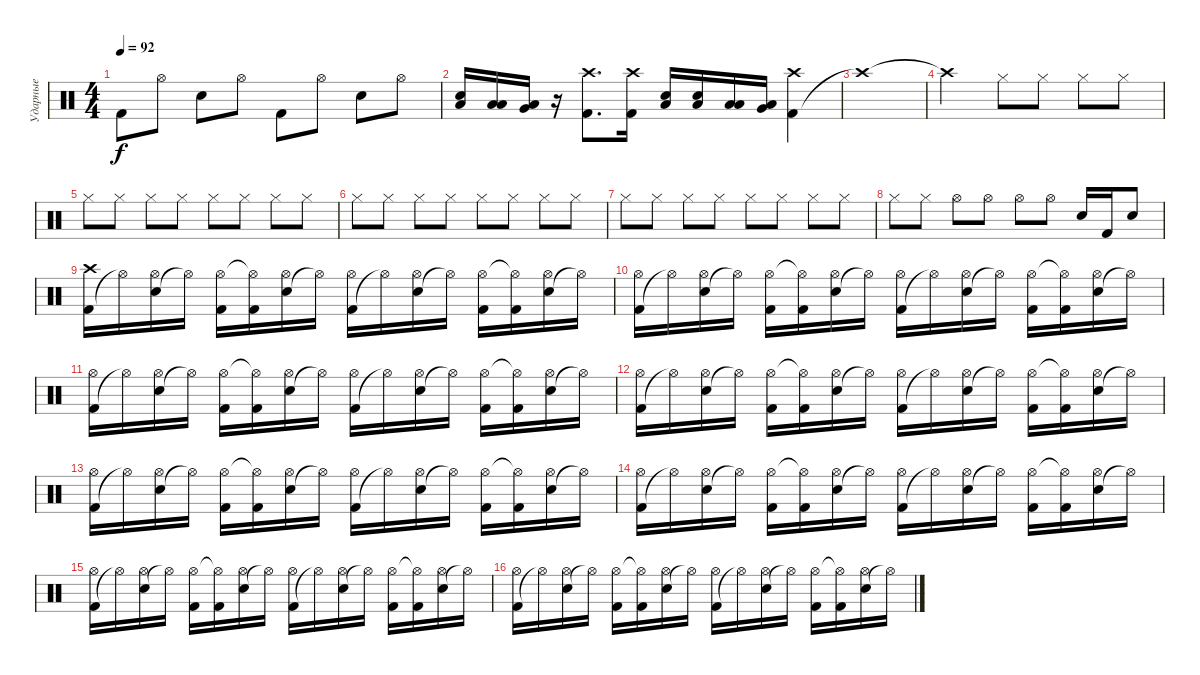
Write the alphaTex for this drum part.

\track ("Ударные" "Ударные") {instrument percussion}
\staff {score}
\articulation defaults
\ts (4 4)
\tempo 92
\clef neutral
\ks c "Kick (hit) 2".8{dy f} "Hi-Hat (open)".8 "Snare (hit) 2".8 "Hi-Hat (open)".8 "Kick (hit) 2".8 "Hi-Hat (open)".8 "Snare (hit) 2".8 "Hi-Hat (open)".8
|
("Snare (hit) 2" "Low Floor Tom (hit)").16 ("Low Tom (hit)" "Low Floor Tom (hit)").16 ("Very Low Tom (hit)" "Low Floor Tom (hit)").16 r.16 ("Kick (hit) 2" "Crash high (hit)").8{d} ("Kick (hit) 2" "Crash high (hit)").16 ("Snare (hit) 2" "Low Floor Tom (hit)").16 ("Snare (hit) 2" "Low Floor Tom (hit)").16 ("Low Tom (hit)" "Low Floor Tom (hit)").16 ("Very Low Tom (hit)" "Low Floor Tom (hit)").16 ("Kick (hit) 2" "Crash high (hit)").4 |
"Crash high (hit)"{t}.1 |
"Crash high (hit)"{t}.2 "Hi-Hat (closed)".8 "Hi-Hat (closed)".8 "Hi-Hat (closed)".8 "Hi-Hat (closed)".8 |
"Hi-Hat (closed)".8 "Hi-Hat (closed)".8 "Hi-Hat (closed)".8 "Hi-Hat (closed)".8 "Hi-Hat (closed)".8 "Hi-Hat (closed)".8 "Hi-Hat (closed)".8 "Hi-Hat (closed)".8 |
"Hi-Hat (closed)".8 "Hi-Hat (closed)".8 "Hi-Hat (closed)".8 "Hi-Hat (closed)".8 "Hi-Hat (closed)".8 "Hi-Hat (closed)".8 "Hi-Hat (closed)".8 "Hi-Hat (closed)".8 |
"Hi-Hat (closed)".8 "Hi-Hat (closed)".8 "Hi-Hat (closed)".8 "Hi-Hat (closed)".8 "Hi-Hat (closed)".8 "Hi-Hat (closed)".8 "Hi-Hat (closed)".8 "Hi-Hat (closed)".8 |
"Hi-Hat (closed)".8 "Hi-Hat (closed)".8 "Hi-Hat (open)".8 "Hi-Hat (open)".8 "Hi-Hat (open)".8 "Hi-Hat (open)".8 "Snare (hit) 2".16 "Kick (hit) 2".16 "Snare (hit) 2".8 |
("Kick (hit) 2" "Crash high (hit)").16 "Hi-Hat (open)"{t}.16 ("Snare (hit) 2" "Hi-Hat (open)").16 "Hi-Hat (open)"{t}.16 ("Kick (hit) 2" "Hi-Hat (open)").16 ("Kick (hit) 2" "Hi-Hat (open)"{t}).16 ("Snare (hit) 2" "Hi-Hat (open)").16 "Hi-Hat (open)"{t}.16 ("Kick (hit) 2" "Hi-Hat (open)").16 "Hi-Hat (open)"{t}.16 ("Snare (hit) 2" "Hi-Hat (open)").16 "Hi-Hat (open)"{t}.16 ("Kick (hit) 2" "Hi-Hat (open)").16 ("Kick (hit) 2" "Hi-Hat (open)"{t}).16 ("Snare (hit) 2" "Hi-Hat (open)").16 "Hi-Hat (open)"{t}.16 |
("Kick (hit) 2" "Hi-Hat (open)").16 "Hi-Hat (open)"{t}.16 ("Snare (hit) 2" "Hi-Hat (open)").16 "Hi-Hat (open)"{t}.16 ("Kick (hit) 2" "Hi-Hat (open)").16 ("Kick (hit) 2" "Hi-Hat (open)"{t}).16 ("Snare (hit) 2" "Hi-Hat (open)").16 "Hi-Hat (open)"{t}.16 ("Kick (hit) 2" "Hi-Hat (open)").16 "Hi-Hat (open)"{t}.16 ("Snare (hit) 2" "Hi-Hat (open)").16 "Hi-Hat (open)"{t}.16 ("Kick (hit) 2" "Hi-Hat (open)").16 ("Kick (hit) 2" "Hi-Hat (open)"{t}).16 ("Snare (hit) 2" "Hi-Hat (open)").16 "Hi-Hat (open)"{t}.16 |
("Kick (hit) 2" "Hi-Hat (open)").16 "Hi-Hat (open)"{t}.16 ("Snare (hit) 2" "Hi-Hat (open)").16 "Hi-Hat (open)"{t}.16 ("Kick (hit) 2" "Hi-Hat (open)").16 ("Kick (hit) 2" "Hi-Hat (open)"{t}).16 ("Snare (hit) 2" "Hi-Hat (open)").16 "Hi-Hat (open)"{t}.16 ("Kick (hit) 2" "Hi-Hat (open)").16 "Hi-Hat (open)"{t}.16 ("Snare (hit) 2" "Hi-Hat (open)").16 "Hi-Hat (open)"{t}.16 ("Kick (hit) 2" "Hi-Hat (open)").16 ("Kick (hit) 2" "Hi-Hat (open)"{t}).16 ("Snare (hit) 2" "Hi-Hat (open)").16 "Hi-Hat (open)"{t}.16 |
("Kick (hit) 2" "Hi-Hat (open)").16 "Hi-Hat (open)"{t}.16 ("Snare (hit) 2" "Hi-Hat (open)").16 "Hi-Hat (open)"{t}.16 ("Kick (hit) 2" "Hi-Hat (open)").16 ("Kick (hit) 2" "Hi-Hat (open)"{t}).16 ("Snare (hit) 2" "Hi-Hat (open)").16 "Hi-Hat (open)"{t}.16 ("Kick (hit) 2" "Hi-Hat (open)").16 "Hi-Hat (open)"{t}.16 ("Snare (hit) 2" "Hi-Hat (open)").16 "Hi-Hat (open)"{t}.16 ("Kick (hit) 2" "Hi-Hat (open)").16 ("Kick (hit) 2" "Hi-Hat (open)"{t}).16 ("Snare (hit) 2" "Hi-Hat (open)").16 "Hi-Hat (open)"{t}.16 |
("Kick (hit) 2" "Hi-Hat (open)").16 "Hi-Hat (open)"{t}.16 ("Snare (hit) 2" "Hi-Hat (open)").16 "Hi-Hat (open)"{t}.16 ("Kick (hit) 2" "Hi-Hat (open)").16 ("Kick (hit) 2" "Hi-Hat (open)"{t}).16 ("Snare (hit) 2" "Hi-Hat (open)").16 "Hi-Hat (open)"{t}.16 ("Kick (hit) 2" "Hi-Hat (open)").16 "Hi-Hat (open)"{t}.16 ("Snare (hit) 2" "Hi-Hat (open)").16 "Hi-Hat (open)"{t}.16 ("Kick (hit) 2" "Hi-Hat (open)").16 ("Kick (hit) 2" "Hi-Hat (open)"{t}).16 ("Snare (hit) 2" "Hi-Hat (open)").16 "Hi-Hat (open)"{t}.16 |
("Kick (hit) 2" "Hi-Hat (open)").16 "Hi-Hat (open)"{t}.16 ("Snare (hit) 2" "Hi-Hat (open)").16 "Hi-Hat (open)"{t}.16 ("Kick (hit) 2" "Hi-Hat (open)").16 ("Kick (hit) 2" "Hi-Hat (open)"{t}).16 ("Snare (hit) 2" "Hi-Hat (open)").16 "Hi-Hat (open)"{t}.16 ("Kick (hit) 2" "Hi-Hat (open)").16 "Hi-Hat (open)"{t}.16 ("Snare (hit) 2" "Hi-Hat (open)").16 "Hi-Hat (open)"{t}.16 ("Kick (hit) 2" "Hi-Hat (open)").16 ("Kick (hit) 2" "Hi-Hat (open)"{t}).16 ("Snare (hit) 2" "Hi-Hat (open)").16 "Hi-Hat (open)"{t}.16 |
("Kick (hit) 2" "Hi-Hat (open)").16 "Hi-Hat (open)"{t}.16 ("Snare (hit) 2" "Hi-Hat (open)").16 "Hi-Hat (open)"{t}.16 ("Kick (hit) 2" "Hi-Hat (open)").16 ("Kick (hit) 2" "Hi-Hat (open)"{t}).16 ("Snare (hit) 2" "Hi-Hat (open)").16 "Hi-Hat (open)"{t}.16 ("Kick (hit) 2" "Hi-Hat (open)").16 "Hi-Hat (open)"{t}.16 ("Snare (hit) 2" "Hi-Hat (open)").16 "Hi-Hat (open)"{t}.16 ("Kick (hit) 2" "Hi-Hat (open)").16 ("Kick (hit) 2" "Hi-Hat (open)"{t}).16 ("Snare (hit) 2" "Hi-Hat (open)").16 "Hi-Hat (open)"{t}.16 |
("Kick (hit) 2" "Hi-Hat (open)").16 "Hi-Hat (open)"{t}.16 ("Snare (hit) 2" "Hi-Hat (open)").16 "Hi-Hat (open)"{t}.16 ("Kick (hit) 2" "Hi-Hat (open)").16 ("Kick (hit) 2" "Hi-Hat (open)"{t}).16 ("Snare (hit) 2" "Hi-Hat (open)").16 "Hi-Hat (open)"{t}.16 ("Kick (hit) 2" "Hi-Hat (open)").16 "Hi-Hat (open)"{t}.16 ("Snare (hit) 2" "Hi-Hat (open)").16 "Hi-Hat (open)"{t}.16 ("Kick (hit) 2" "Hi-Hat (open)").16 ("Kick (hit) 2" "Hi-Hat (open)"{t}).16 ("Snare (hit) 2" "Hi-Hat (open)").16 "Hi-Hat (open)"{t}.16
